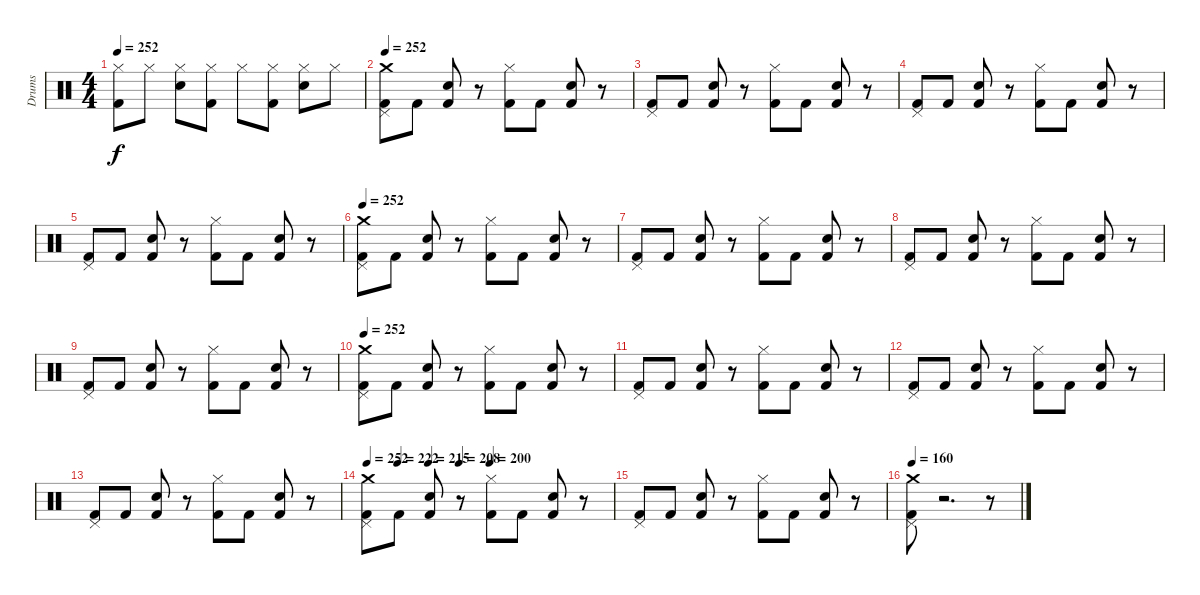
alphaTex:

\track ("Drums" "Drums") {instrument percussion}
\staff {score}
\articulation defaults
\ts (4 4)
\tempo 252
\clef neutral
\ks c
("Kick (hit) 2" "Hi-Hat (closed)").8{dy f} "Hi-Hat (closed)".8 ("Snare (hit) 2" "Hi-Hat (closed)").8 ("Kick (hit) 2" "Hi-Hat (closed)").8 "Hi-Hat (closed)".8 ("Kick (hit) 2" "Hi-Hat (closed)").8 ("Snare (hit) 2" "Hi-Hat (closed)").8 "Hi-Hat (closed)".8 |
\tempo 252
("Kick (hit) 2" "Pedal Hi-Hat (hit)" "Crash medium (hit)").8 "Kick (hit) 2".8 ("Kick (hit) 2" "Snare (hit) 2").8 r.8 ("Kick (hit) 2" "Hi-Hat (closed)").8 "Kick (hit) 2".8 ("Kick (hit) 2" "Snare (hit) 2").8 r.8 |
("Kick (hit) 2" "Pedal Hi-Hat (hit)").8 "Kick (hit) 2".8 ("Kick (hit) 2" "Snare (hit) 2").8 r.8 ("Kick (hit) 2" "Hi-Hat (closed)").8 "Kick (hit) 2".8 ("Kick (hit) 2" "Snare (hit) 2").8 r.8 |
("Kick (hit) 2" "Pedal Hi-Hat (hit)").8 "Kick (hit) 2".8 ("Kick (hit) 2" "Snare (hit) 2").8 r.8 ("Kick (hit) 2" "Hi-Hat (closed)").8 "Kick (hit) 2".8 ("Kick (hit) 2" "Snare (hit) 2").8 r.8 |
("Kick (hit) 2" "Pedal Hi-Hat (hit)").8 "Kick (hit) 2".8 ("Kick (hit) 2" "Snare (hit) 2").8 r.8 ("Kick (hit) 2" "Hi-Hat (closed)").8 "Kick (hit) 2".8 ("Kick (hit) 2" "Snare (hit) 2").8 r.8 |
\tempo 252
("Kick (hit) 2" "Pedal Hi-Hat (hit)" "Crash medium (hit)").8 "Kick (hit) 2".8 ("Kick (hit) 2" "Snare (hit) 2").8 r.8 ("Kick (hit) 2" "Hi-Hat (closed)").8 "Kick (hit) 2".8 ("Kick (hit) 2" "Snare (hit) 2").8 r.8 |
("Kick (hit) 2" "Pedal Hi-Hat (hit)").8 "Kick (hit) 2".8 ("Kick (hit) 2" "Snare (hit) 2").8 r.8 ("Kick (hit) 2" "Hi-Hat (closed)").8 "Kick (hit) 2".8 ("Kick (hit) 2" "Snare (hit) 2").8 r.8 |
("Kick (hit) 2" "Pedal Hi-Hat (hit)").8 "Kick (hit) 2".8 ("Kick (hit) 2" "Snare (hit) 2").8 r.8 ("Kick (hit) 2" "Hi-Hat (closed)").8 "Kick (hit) 2".8 ("Kick (hit) 2" "Snare (hit) 2").8 r.8 |
("Kick (hit) 2" "Pedal Hi-Hat (hit)").8 "Kick (hit) 2".8 ("Kick (hit) 2" "Snare (hit) 2").8 r.8 ("Kick (hit) 2" "Hi-Hat (closed)").8 "Kick (hit) 2".8 ("Kick (hit) 2" "Snare (hit) 2").8 r.8 |
\tempo 252
("Kick (hit) 2" "Pedal Hi-Hat (hit)" "Crash medium (hit)").8 "Kick (hit) 2".8 ("Kick (hit) 2" "Snare (hit) 2").8 r.8 ("Kick (hit) 2" "Hi-Hat (closed)").8 "Kick (hit) 2".8 ("Kick (hit) 2" "Snare (hit) 2").8 r.8 |
("Kick (hit) 2" "Pedal Hi-Hat (hit)").8 "Kick (hit) 2".8 ("Kick (hit) 2" "Snare (hit) 2").8 r.8 ("Kick (hit) 2" "Hi-Hat (closed)").8 "Kick (hit) 2".8 ("Kick (hit) 2" "Snare (hit) 2").8 r.8 |
("Kick (hit) 2" "Pedal Hi-Hat (hit)").8 "Kick (hit) 2".8 ("Kick (hit) 2" "Snare (hit) 2").8 r.8 ("Kick (hit) 2" "Hi-Hat (closed)").8 "Kick (hit) 2".8 ("Kick (hit) 2" "Snare (hit) 2").8 r.8 |
("Kick (hit) 2" "Pedal Hi-Hat (hit)").8 "Kick (hit) 2".8 ("Kick (hit) 2" "Snare (hit) 2").8 r.8 ("Kick (hit) 2" "Hi-Hat (closed)").8 "Kick (hit) 2".8 ("Kick (hit) 2" "Snare (hit) 2").8 r.8 |
\tempo 252
\tempo (222 0.125)
\tempo (215 0.25)
\tempo (208 0.375)
\tempo (200 0.5)
("Kick (hit) 2" "Pedal Hi-Hat (hit)" "Crash medium (hit)").8 "Kick (hit) 2".8 ("Kick (hit) 2" "Snare (hit) 2").8 r.8 ("Kick (hit) 2" "Hi-Hat (closed)").8 "Kick (hit) 2".8 ("Kick (hit) 2" "Snare (hit) 2").8 r.8 |
("Kick (hit) 2" "Pedal Hi-Hat (hit)").8 "Kick (hit) 2".8 ("Kick (hit) 2" "Snare (hit) 2").8 r.8 ("Kick (hit) 2" "Hi-Hat (closed)").8 "Kick (hit) 2".8 ("Kick (hit) 2" "Snare (hit) 2").8 r.8 |
\tempo 108
\tempo 160
("Kick (hit) 2" "Pedal Hi-Hat (hit)" "Crash medium (hit)").8 r.2{d} r.8
